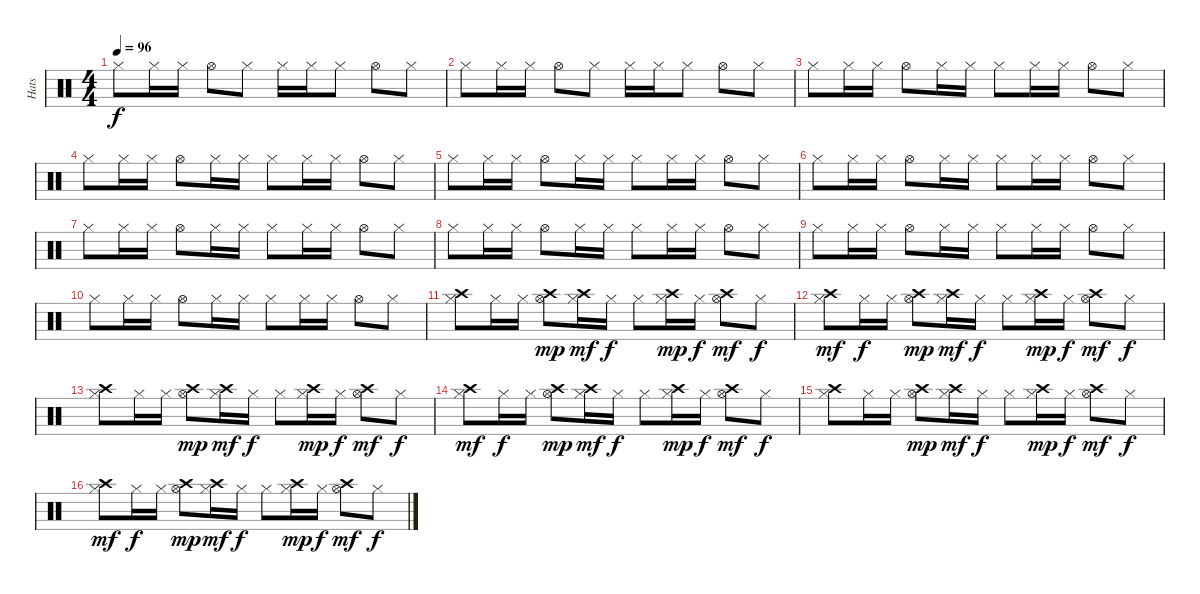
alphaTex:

\track ("Hats" "Hats") {instrument percussion}
\staff {score}
\articulation defaults
\ts (4 4)
\tempo 96
\clef neutral
\ks c "Hi-Hat (closed)".8{dy f} "Hi-Hat (closed)".16 "Hi-Hat (closed)".16 "Hi-Hat (open)".8 "Hi-Hat (closed)".8 "Hi-Hat (closed)".16 "Hi-Hat (closed)".16 "Hi-Hat (closed)".8 "Hi-Hat (open)".8 "Hi-Hat (closed)".8
|
"Hi-Hat (closed)".8 "Hi-Hat (closed)".16 "Hi-Hat (closed)".16 "Hi-Hat (open)".8 "Hi-Hat (closed)".8 "Hi-Hat (closed)".16 "Hi-Hat (closed)".16 "Hi-Hat (closed)".8 "Hi-Hat (open)".8 "Hi-Hat (closed)".8 |
"Hi-Hat (closed)".8 "Hi-Hat (closed)".16 "Hi-Hat (closed)".16 "Hi-Hat (open)".8 "Hi-Hat (closed)".16 "Hi-Hat (closed)".16 "Hi-Hat (closed)".8 "Hi-Hat (closed)".16 "Hi-Hat (closed)".16 "Hi-Hat (open)".8 "Hi-Hat (closed)".8 |
"Hi-Hat (closed)".8 "Hi-Hat (closed)".16 "Hi-Hat (closed)".16 "Hi-Hat (open)".8 "Hi-Hat (closed)".16 "Hi-Hat (closed)".16 "Hi-Hat (closed)".8 "Hi-Hat (closed)".16 "Hi-Hat (closed)".16 "Hi-Hat (open)".8 "Hi-Hat (closed)".8 |
"Hi-Hat (closed)".8 "Hi-Hat (closed)".16 "Hi-Hat (closed)".16 "Hi-Hat (open)".8 "Hi-Hat (closed)".16 "Hi-Hat (closed)".16 "Hi-Hat (closed)".8 "Hi-Hat (closed)".16 "Hi-Hat (closed)".16 "Hi-Hat (open)".8 "Hi-Hat (closed)".8 |
"Hi-Hat (closed)".8 "Hi-Hat (closed)".16 "Hi-Hat (closed)".16 "Hi-Hat (open)".8 "Hi-Hat (closed)".16 "Hi-Hat (closed)".16 "Hi-Hat (closed)".8 "Hi-Hat (closed)".16 "Hi-Hat (closed)".16 "Hi-Hat (open)".8 "Hi-Hat (closed)".8 |
"Hi-Hat (closed)".8 "Hi-Hat (closed)".16 "Hi-Hat (closed)".16 "Hi-Hat (open)".8 "Hi-Hat (closed)".16 "Hi-Hat (closed)".16 "Hi-Hat (closed)".8 "Hi-Hat (closed)".16 "Hi-Hat (closed)".16 "Hi-Hat (open)".8 "Hi-Hat (closed)".8 |
"Hi-Hat (closed)".8 "Hi-Hat (closed)".16 "Hi-Hat (closed)".16 "Hi-Hat (open)".8 "Hi-Hat (closed)".16 "Hi-Hat (closed)".16 "Hi-Hat (closed)".8 "Hi-Hat (closed)".16 "Hi-Hat (closed)".16 "Hi-Hat (open)".8 "Hi-Hat (closed)".8 |
"Hi-Hat (closed)".8 "Hi-Hat (closed)".16 "Hi-Hat (closed)".16 "Hi-Hat (open)".8 "Hi-Hat (closed)".16 "Hi-Hat (closed)".16 "Hi-Hat (closed)".8 "Hi-Hat (closed)".16 "Hi-Hat (closed)".16 "Hi-Hat (open)".8 "Hi-Hat (closed)".8 |
"Hi-Hat (closed)".8 "Hi-Hat (closed)".16 "Hi-Hat (closed)".16 "Hi-Hat (open)".8 "Hi-Hat (closed)".16 "Hi-Hat (closed)".16 "Hi-Hat (closed)".8 "Hi-Hat (closed)".16 "Hi-Hat (closed)".16 "Hi-Hat (open)".8 "Hi-Hat (closed)".8 |
("Hi-Hat (closed)" "Crash high (hit)").8 "Hi-Hat (closed)".16 "Hi-Hat (closed)".16 ("Hi-Hat (open)" "Crash high (hit)").8{dy mp} ("Hi-Hat (closed)" "Crash high (hit)").16{dy mf} "Hi-Hat (closed)".16{dy f} "Hi-Hat (closed)".8 ("Hi-Hat (closed)" "Crash high (hit)").16{dy mp} "Hi-Hat (closed)".16{dy f} ("Hi-Hat (open)" "Crash high (hit)").8{dy mf} "Hi-Hat (closed)".8{dy f} |
("Hi-Hat (closed)" "Crash high (hit)").8{dy mf} "Hi-Hat (closed)".16{dy f} "Hi-Hat (closed)".16 ("Hi-Hat (open)" "Crash high (hit)").8{dy mp} ("Hi-Hat (closed)" "Crash high (hit)").16{dy mf} "Hi-Hat (closed)".16{dy f} "Hi-Hat (closed)".8 ("Hi-Hat (closed)" "Crash high (hit)").16{dy mp} "Hi-Hat (closed)".16{dy f} ("Hi-Hat (open)" "Crash high (hit)").8{dy mf} "Hi-Hat (closed)".8{dy f} |
("Hi-Hat (closed)" "Crash high (hit)").8 "Hi-Hat (closed)".16 "Hi-Hat (closed)".16 ("Hi-Hat (open)" "Crash high (hit)").8{dy mp} ("Hi-Hat (closed)" "Crash high (hit)").16{dy mf} "Hi-Hat (closed)".16{dy f} "Hi-Hat (closed)".8 ("Hi-Hat (closed)" "Crash high (hit)").16{dy mp} "Hi-Hat (closed)".16{dy f} ("Hi-Hat (open)" "Crash high (hit)").8{dy mf} "Hi-Hat (closed)".8{dy f} |
("Hi-Hat (closed)" "Crash high (hit)").8{dy mf} "Hi-Hat (closed)".16{dy f} "Hi-Hat (closed)".16 ("Hi-Hat (open)" "Crash high (hit)").8{dy mp} ("Hi-Hat (closed)" "Crash high (hit)").16{dy mf} "Hi-Hat (closed)".16{dy f} "Hi-Hat (closed)".8 ("Hi-Hat (closed)" "Crash high (hit)").16{dy mp} "Hi-Hat (closed)".16{dy f} ("Hi-Hat (open)" "Crash high (hit)").8{dy mf} "Hi-Hat (closed)".8{dy f} |
("Hi-Hat (closed)" "Crash high (hit)").8 "Hi-Hat (closed)".16 "Hi-Hat (closed)".16 ("Hi-Hat (open)" "Crash high (hit)").8{dy mp} ("Hi-Hat (closed)" "Crash high (hit)").16{dy mf} "Hi-Hat (closed)".16{dy f} "Hi-Hat (closed)".8 ("Hi-Hat (closed)" "Crash high (hit)").16{dy mp} "Hi-Hat (closed)".16{dy f} ("Hi-Hat (open)" "Crash high (hit)").8{dy mf} "Hi-Hat (closed)".8{dy f} |
("Hi-Hat (closed)" "Crash high (hit)").8{dy mf} "Hi-Hat (closed)".16{dy f} "Hi-Hat (closed)".16 ("Hi-Hat (open)" "Crash high (hit)").8{dy mp} ("Hi-Hat (closed)" "Crash high (hit)").16{dy mf} "Hi-Hat (closed)".16{dy f} "Hi-Hat (closed)".8 ("Hi-Hat (closed)" "Crash high (hit)").16{dy mp} "Hi-Hat (closed)".16{dy f} ("Hi-Hat (open)" "Crash high (hit)").8{dy mf} "Hi-Hat (closed)".8{dy f}
